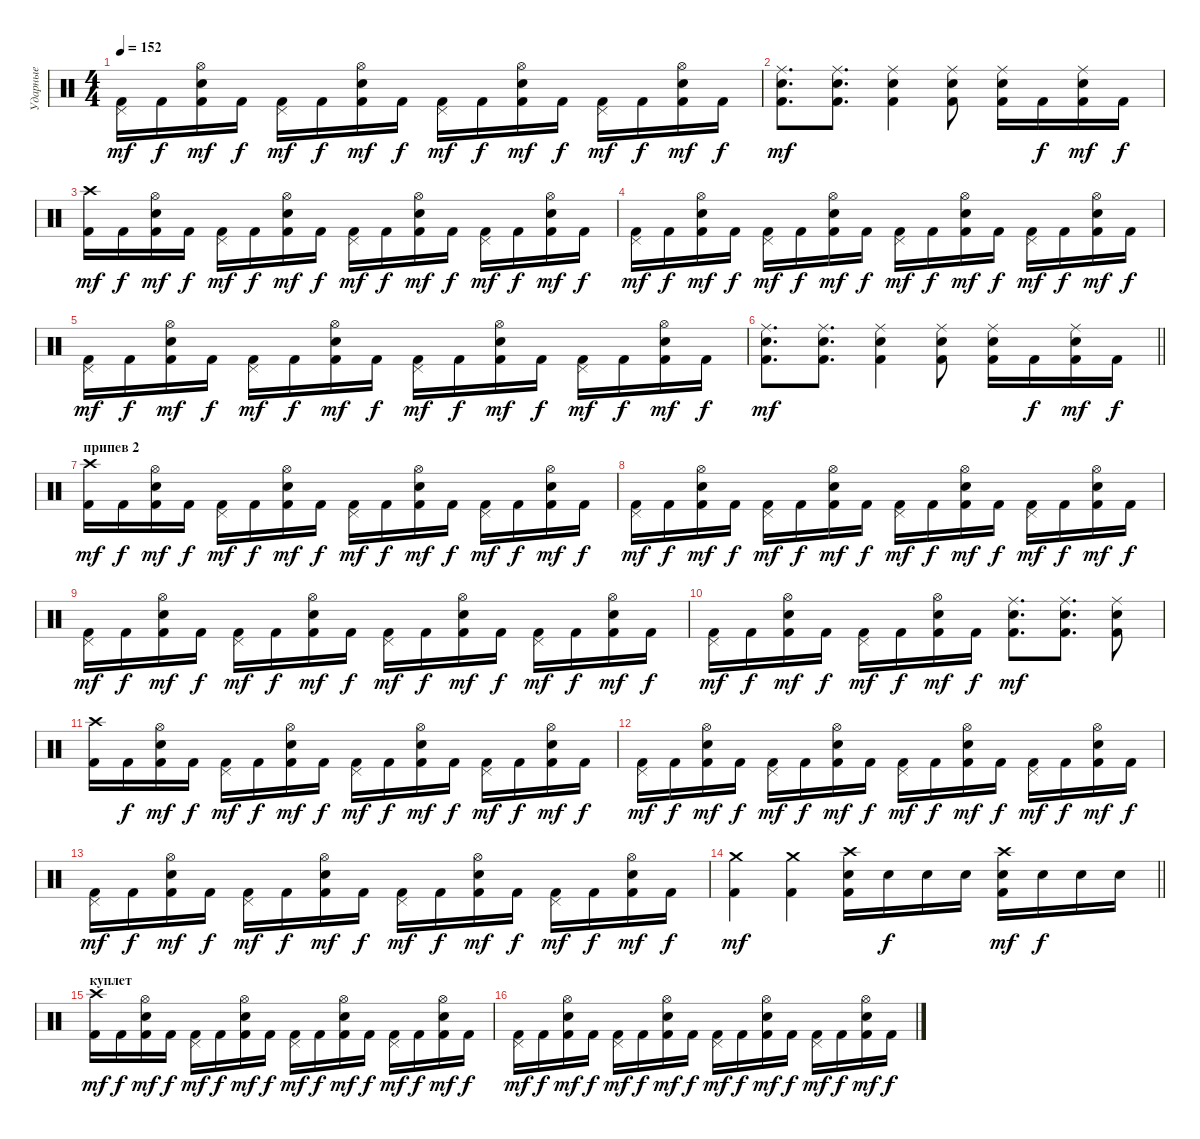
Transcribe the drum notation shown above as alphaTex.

\track ("Ударные" "Ударные") {instrument percussion}
\staff {score}
\articulation defaults
\ts (4 4)
\tempo 152
\clef neutral
\ks c
("Kick (hit) 2" "Pedal Hi-Hat (hit)").16{dy mf} "Kick (hit) 2".16{dy f} ("Kick (hit) 2" "Electric Snare (hit)" "Hi-Hat (open)").16{dy mf} "Kick (hit) 2".16{dy f} ("Kick (hit) 2" "Pedal Hi-Hat (hit)").16{dy mf} "Kick (hit) 2".16{dy f} ("Kick (hit) 2" "Electric Snare (hit)" "Hi-Hat (open)").16{dy mf} "Kick (hit) 2".16{dy f} ("Kick (hit) 2" "Pedal Hi-Hat (hit)").16{dy mf} "Kick (hit) 2".16{dy f} ("Kick (hit) 2" "Electric Snare (hit)" "Hi-Hat (open)").16{dy mf} "Kick (hit) 2".16{dy f} ("Kick (hit) 2" "Pedal Hi-Hat (hit)").16{dy mf} "Kick (hit) 2".16{dy f} ("Kick (hit) 2" "Electric Snare (hit)" "Hi-Hat (open)").16{dy mf} "Kick (hit) 2".16{dy f} |
("Kick (hit) 2" "Electric Snare (hit)" "Ride (middle)").8{d dy mf} ("Kick (hit) 2" "Electric Snare (hit)" "Ride (middle)").8{d} ("Kick (hit) 2" "Electric Snare (hit)" "Ride (middle)").4 ("Kick (hit) 2" "Electric Snare (hit)" "Ride (middle)").8 ("Kick (hit) 2" "Electric Snare (hit)" "Ride (middle)").16 "Kick (hit) 2".16{dy f} ("Kick (hit) 2" "Electric Snare (hit)" "Ride (middle)").16{dy mf} "Kick (hit) 2".16{dy f} |
("Kick (hit) 2" "Crash high (hit)").16{dy mf} "Kick (hit) 2".16{dy f} ("Kick (hit) 2" "Electric Snare (hit)" "Hi-Hat (open)").16{dy mf} "Kick (hit) 2".16{dy f} ("Kick (hit) 2" "Pedal Hi-Hat (hit)").16{dy mf} "Kick (hit) 2".16{dy f} ("Kick (hit) 2" "Electric Snare (hit)" "Hi-Hat (open)").16{dy mf} "Kick (hit) 2".16{dy f} ("Kick (hit) 2" "Pedal Hi-Hat (hit)").16{dy mf} "Kick (hit) 2".16{dy f} ("Kick (hit) 2" "Electric Snare (hit)" "Hi-Hat (open)").16{dy mf} "Kick (hit) 2".16{dy f} ("Kick (hit) 2" "Pedal Hi-Hat (hit)").16{dy mf} "Kick (hit) 2".16{dy f} ("Kick (hit) 2" "Electric Snare (hit)" "Hi-Hat (open)").16{dy mf} "Kick (hit) 2".16{dy f} |
("Kick (hit) 2" "Pedal Hi-Hat (hit)").16{dy mf} "Kick (hit) 2".16{dy f} ("Kick (hit) 2" "Electric Snare (hit)" "Hi-Hat (open)").16{dy mf} "Kick (hit) 2".16{dy f} ("Kick (hit) 2" "Pedal Hi-Hat (hit)").16{dy mf} "Kick (hit) 2".16{dy f} ("Kick (hit) 2" "Electric Snare (hit)" "Hi-Hat (open)").16{dy mf} "Kick (hit) 2".16{dy f} ("Kick (hit) 2" "Pedal Hi-Hat (hit)").16{dy mf} "Kick (hit) 2".16{dy f} ("Kick (hit) 2" "Electric Snare (hit)" "Hi-Hat (open)").16{dy mf} "Kick (hit) 2".16{dy f} ("Kick (hit) 2" "Pedal Hi-Hat (hit)").16{dy mf} "Kick (hit) 2".16{dy f} ("Kick (hit) 2" "Electric Snare (hit)" "Hi-Hat (open)").16{dy mf} "Kick (hit) 2".16{dy f} |
("Kick (hit) 2" "Pedal Hi-Hat (hit)").16{dy mf} "Kick (hit) 2".16{dy f} ("Kick (hit) 2" "Electric Snare (hit)" "Hi-Hat (open)").16{dy mf} "Kick (hit) 2".16{dy f} ("Kick (hit) 2" "Pedal Hi-Hat (hit)").16{dy mf} "Kick (hit) 2".16{dy f} ("Kick (hit) 2" "Electric Snare (hit)" "Hi-Hat (open)").16{dy mf} "Kick (hit) 2".16{dy f} ("Kick (hit) 2" "Pedal Hi-Hat (hit)").16{dy mf} "Kick (hit) 2".16{dy f} ("Kick (hit) 2" "Electric Snare (hit)" "Hi-Hat (open)").16{dy mf} "Kick (hit) 2".16{dy f} ("Kick (hit) 2" "Pedal Hi-Hat (hit)").16{dy mf} "Kick (hit) 2".16{dy f} ("Kick (hit) 2" "Electric Snare (hit)" "Hi-Hat (open)").16{dy mf} "Kick (hit) 2".16{dy f} |
\barLineRight lightlight
("Kick (hit) 2" "Electric Snare (hit)" "Ride (middle)").8{d dy mf} ("Kick (hit) 2" "Electric Snare (hit)" "Ride (middle)").8{d} ("Kick (hit) 2" "Electric Snare (hit)" "Ride (middle)").4 ("Kick (hit) 2" "Electric Snare (hit)" "Ride (middle)").8 ("Kick (hit) 2" "Electric Snare (hit)" "Ride (middle)").16 "Kick (hit) 2".16{dy f} ("Kick (hit) 2" "Electric Snare (hit)" "Ride (middle)").16{dy mf} "Kick (hit) 2".16{dy f} |
\section ("" "припев 2")
("Kick (hit) 2" "Crash high (hit)").16{dy mf} "Kick (hit) 2".16{dy f} ("Kick (hit) 2" "Electric Snare (hit)" "Hi-Hat (open)").16{dy mf} "Kick (hit) 2".16{dy f} ("Kick (hit) 2" "Pedal Hi-Hat (hit)").16{dy mf} "Kick (hit) 2".16{dy f} ("Kick (hit) 2" "Electric Snare (hit)" "Hi-Hat (open)").16{dy mf} "Kick (hit) 2".16{dy f} ("Kick (hit) 2" "Pedal Hi-Hat (hit)").16{dy mf} "Kick (hit) 2".16{dy f} ("Kick (hit) 2" "Electric Snare (hit)" "Hi-Hat (open)").16{dy mf} "Kick (hit) 2".16{dy f} ("Kick (hit) 2" "Pedal Hi-Hat (hit)").16{dy mf} "Kick (hit) 2".16{dy f} ("Kick (hit) 2" "Electric Snare (hit)" "Hi-Hat (open)").16{dy mf} "Kick (hit) 2".16{dy f} |
("Kick (hit) 2" "Pedal Hi-Hat (hit)").16{dy mf} "Kick (hit) 2".16{dy f} ("Kick (hit) 2" "Electric Snare (hit)" "Hi-Hat (open)").16{dy mf} "Kick (hit) 2".16{dy f} ("Kick (hit) 2" "Pedal Hi-Hat (hit)").16{dy mf} "Kick (hit) 2".16{dy f} ("Kick (hit) 2" "Electric Snare (hit)" "Hi-Hat (open)").16{dy mf} "Kick (hit) 2".16{dy f} ("Kick (hit) 2" "Pedal Hi-Hat (hit)").16{dy mf} "Kick (hit) 2".16{dy f} ("Kick (hit) 2" "Electric Snare (hit)" "Hi-Hat (open)").16{dy mf} "Kick (hit) 2".16{dy f} ("Kick (hit) 2" "Pedal Hi-Hat (hit)").16{dy mf} "Kick (hit) 2".16{dy f} ("Kick (hit) 2" "Electric Snare (hit)" "Hi-Hat (open)").16{dy mf} "Kick (hit) 2".16{dy f} |
("Kick (hit) 2" "Pedal Hi-Hat (hit)").16{dy mf} "Kick (hit) 2".16{dy f} ("Kick (hit) 2" "Electric Snare (hit)" "Hi-Hat (open)").16{dy mf} "Kick (hit) 2".16{dy f} ("Kick (hit) 2" "Pedal Hi-Hat (hit)").16{dy mf} "Kick (hit) 2".16{dy f} ("Kick (hit) 2" "Electric Snare (hit)" "Hi-Hat (open)").16{dy mf} "Kick (hit) 2".16{dy f} ("Kick (hit) 2" "Pedal Hi-Hat (hit)").16{dy mf} "Kick (hit) 2".16{dy f} ("Kick (hit) 2" "Electric Snare (hit)" "Hi-Hat (open)").16{dy mf} "Kick (hit) 2".16{dy f} ("Kick (hit) 2" "Pedal Hi-Hat (hit)").16{dy mf} "Kick (hit) 2".16{dy f} ("Kick (hit) 2" "Electric Snare (hit)" "Hi-Hat (open)").16{dy mf} "Kick (hit) 2".16{dy f} |
("Kick (hit) 2" "Pedal Hi-Hat (hit)").16{dy mf} "Kick (hit) 2".16{dy f} ("Kick (hit) 2" "Electric Snare (hit)" "Hi-Hat (open)").16{dy mf} "Kick (hit) 2".16{dy f} ("Kick (hit) 2" "Pedal Hi-Hat (hit)").16{dy mf} "Kick (hit) 2".16{dy f} ("Kick (hit) 2" "Electric Snare (hit)" "Hi-Hat (open)").16{dy mf} "Kick (hit) 2".16{dy f} ("Kick (hit) 2" "Electric Snare (hit)" "Ride (middle)").8{d dy mf} ("Kick (hit) 2" "Electric Snare (hit)" "Ride (middle)").8{d} ("Kick (hit) 2" "Electric Snare (hit)" "Ride (middle)").8 |
("Kick (hit) 2" "Crash high (hit)").16 "Kick (hit) 2".16{dy f} ("Kick (hit) 2" "Electric Snare (hit)" "Hi-Hat (open)").16{dy mf} "Kick (hit) 2".16{dy f} ("Kick (hit) 2" "Pedal Hi-Hat (hit)").16{dy mf} "Kick (hit) 2".16{dy f} ("Kick (hit) 2" "Electric Snare (hit)" "Hi-Hat (open)").16{dy mf} "Kick (hit) 2".16{dy f} ("Kick (hit) 2" "Pedal Hi-Hat (hit)").16{dy mf} "Kick (hit) 2".16{dy f} ("Kick (hit) 2" "Electric Snare (hit)" "Hi-Hat (open)").16{dy mf} "Kick (hit) 2".16{dy f} ("Kick (hit) 2" "Pedal Hi-Hat (hit)").16{dy mf} "Kick (hit) 2".16{dy f} ("Kick (hit) 2" "Electric Snare (hit)" "Hi-Hat (open)").16{dy mf} "Kick (hit) 2".16{dy f} |
("Kick (hit) 2" "Pedal Hi-Hat (hit)").16{dy mf} "Kick (hit) 2".16{dy f} ("Kick (hit) 2" "Electric Snare (hit)" "Hi-Hat (open)").16{dy mf} "Kick (hit) 2".16{dy f} ("Kick (hit) 2" "Pedal Hi-Hat (hit)").16{dy mf} "Kick (hit) 2".16{dy f} ("Kick (hit) 2" "Electric Snare (hit)" "Hi-Hat (open)").16{dy mf} "Kick (hit) 2".16{dy f} ("Kick (hit) 2" "Pedal Hi-Hat (hit)").16{dy mf} "Kick (hit) 2".16{dy f} ("Kick (hit) 2" "Electric Snare (hit)" "Hi-Hat (open)").16{dy mf} "Kick (hit) 2".16{dy f} ("Kick (hit) 2" "Pedal Hi-Hat (hit)").16{dy mf} "Kick (hit) 2".16{dy f} ("Kick (hit) 2" "Electric Snare (hit)" "Hi-Hat (open)").16{dy mf} "Kick (hit) 2".16{dy f} |
("Kick (hit) 2" "Pedal Hi-Hat (hit)").16{dy mf} "Kick (hit) 2".16{dy f} ("Kick (hit) 2" "Electric Snare (hit)" "Hi-Hat (open)").16{dy mf} "Kick (hit) 2".16{dy f} ("Kick (hit) 2" "Pedal Hi-Hat (hit)").16{dy mf} "Kick (hit) 2".16{dy f} ("Kick (hit) 2" "Electric Snare (hit)" "Hi-Hat (open)").16{dy mf} "Kick (hit) 2".16{dy f} ("Kick (hit) 2" "Pedal Hi-Hat (hit)").16{dy mf} "Kick (hit) 2".16{dy f} ("Kick (hit) 2" "Electric Snare (hit)" "Hi-Hat (open)").16{dy mf} "Kick (hit) 2".16{dy f} ("Kick (hit) 2" "Pedal Hi-Hat (hit)").16{dy mf} "Kick (hit) 2".16{dy f} ("Kick (hit) 2" "Electric Snare (hit)" "Hi-Hat (open)").16{dy mf} "Kick (hit) 2".16{dy f} |
\barLineRight lightlight
("Kick (hit) 2" "Crash medium (hit)").4{dy mf} ("Kick (hit) 2" "Crash medium (hit)").4 ("Kick (hit) 2" "Electric Snare (hit)" "Crash high (hit)").16 "Electric Snare (hit)".16{dy f} "Electric Snare (hit)".16 "Electric Snare (hit)".16 ("Kick (hit) 2" "Electric Snare (hit)" "Crash high (hit)").16{dy mf} "Electric Snare (hit)".16{dy f} "Electric Snare (hit)".16 "Electric Snare (hit)".16 |
\section ("" "куплет")
("Kick (hit) 2" "Crash high (hit)").16{dy mf} "Kick (hit) 2".16{dy f} ("Kick (hit) 2" "Electric Snare (hit)" "Hi-Hat (open)").16{dy mf} "Kick (hit) 2".16{dy f} ("Kick (hit) 2" "Pedal Hi-Hat (hit)").16{dy mf} "Kick (hit) 2".16{dy f} ("Kick (hit) 2" "Electric Snare (hit)" "Hi-Hat (open)").16{dy mf} "Kick (hit) 2".16{dy f} ("Kick (hit) 2" "Pedal Hi-Hat (hit)").16{dy mf} "Kick (hit) 2".16{dy f} ("Kick (hit) 2" "Electric Snare (hit)" "Hi-Hat (open)").16{dy mf} "Kick (hit) 2".16{dy f} ("Kick (hit) 2" "Pedal Hi-Hat (hit)").16{dy mf} "Kick (hit) 2".16{dy f} ("Kick (hit) 2" "Electric Snare (hit)" "Hi-Hat (open)").16{dy mf} "Kick (hit) 2".16{dy f} |
("Kick (hit) 2" "Pedal Hi-Hat (hit)").16{dy mf} "Kick (hit) 2".16{dy f} ("Kick (hit) 2" "Electric Snare (hit)" "Hi-Hat (open)").16{dy mf} "Kick (hit) 2".16{dy f} ("Kick (hit) 2" "Pedal Hi-Hat (hit)").16{dy mf} "Kick (hit) 2".16{dy f} ("Kick (hit) 2" "Electric Snare (hit)" "Hi-Hat (open)").16{dy mf} "Kick (hit) 2".16{dy f} ("Kick (hit) 2" "Pedal Hi-Hat (hit)").16{dy mf} "Kick (hit) 2".16{dy f} ("Kick (hit) 2" "Electric Snare (hit)" "Hi-Hat (open)").16{dy mf} "Kick (hit) 2".16{dy f} ("Kick (hit) 2" "Pedal Hi-Hat (hit)").16{dy mf} "Kick (hit) 2".16{dy f} ("Kick (hit) 2" "Electric Snare (hit)" "Hi-Hat (open)").16{dy mf} "Kick (hit) 2".16{dy f}
